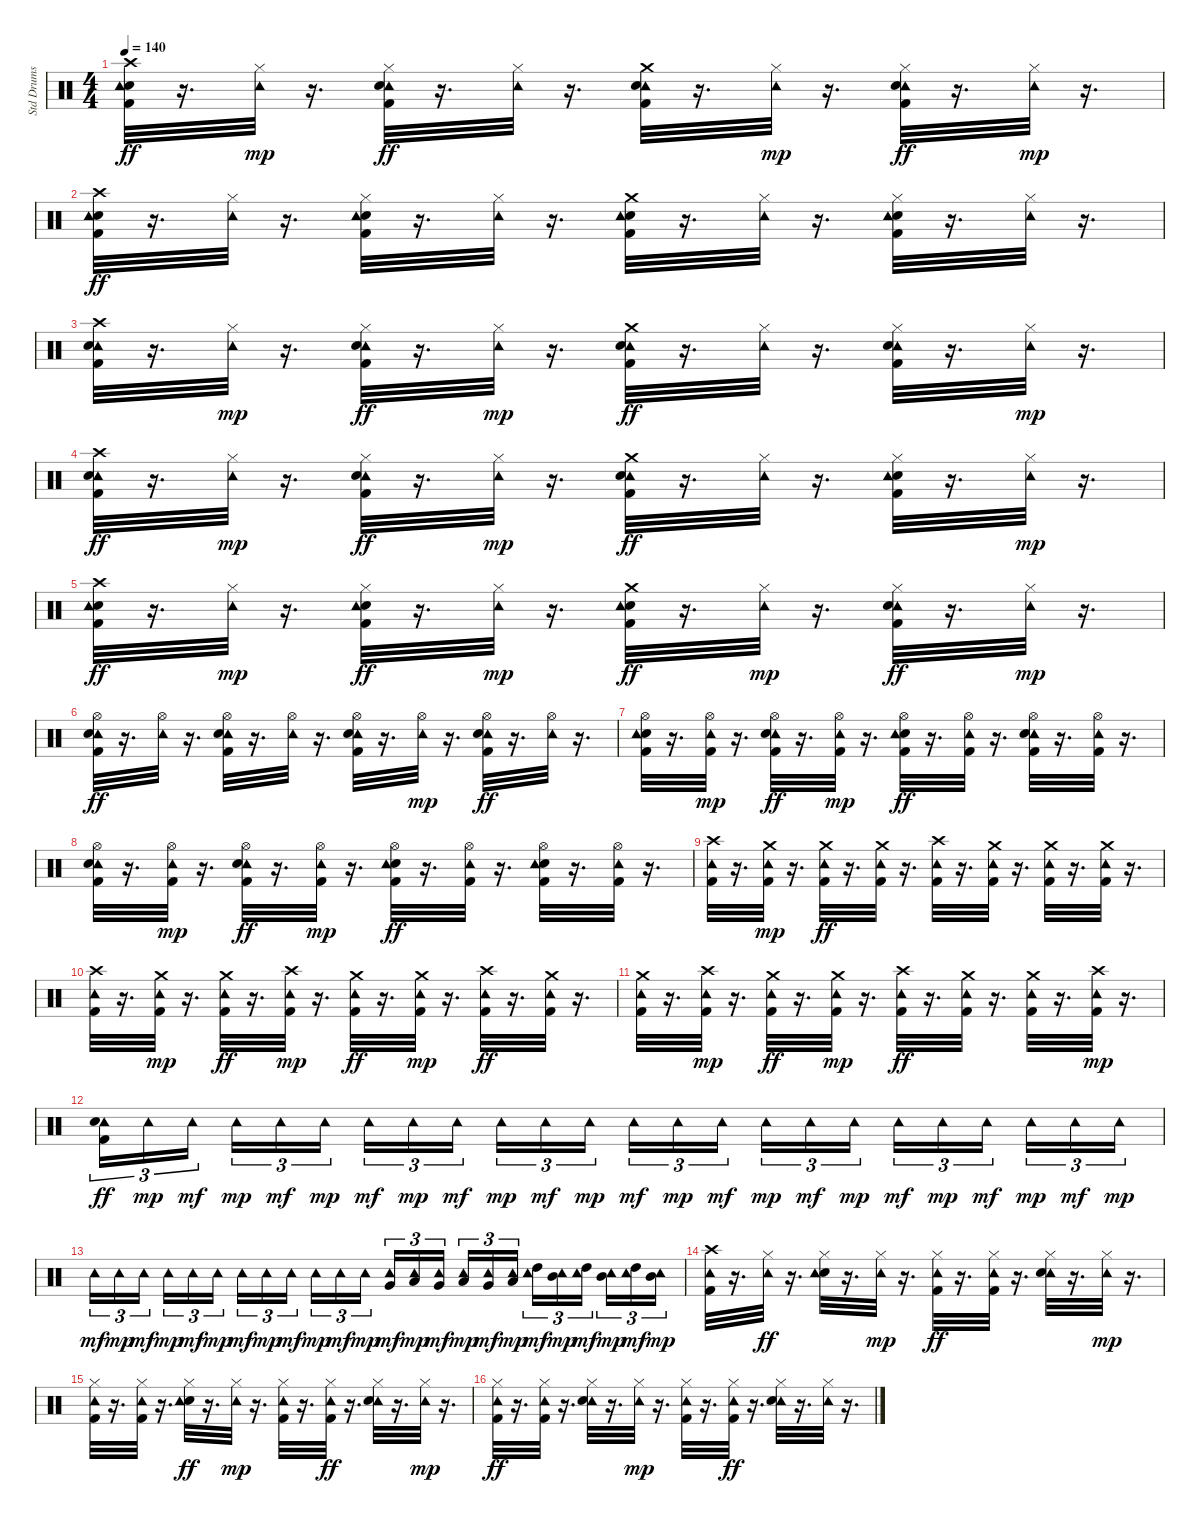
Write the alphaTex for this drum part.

\track ("Std Drums" "Std Drums") {instrument percussion}
\staff {score}
\articulation defaults
\ts (4 4)
\tempo 140
\clef neutral
\ks c
("Snare (hit) 2" "Kick (hit) 2" "Crash high (hit)" "Tambourine (hit)").32{dy ff} r.16{d} ("Hi-Hat (closed)" "Tambourine (hit)").32{dy mp} r.16{d} ("Hi-Hat (closed)" "Tambourine (hit)" "Snare (hit) 2" "Kick (hit) 2").32{dy ff} r.16{d} ("Tambourine (hit)" "Hi-Hat (closed)").32 r.16{d} ("Tambourine (hit)" "Kick (hit) 2" "Crash medium (hit)" "Snare (hit) 2").32 r.16{d} ("Hi-Hat (closed)" "Tambourine (hit)").32{dy mp} r.16{d} ("Tambourine (hit)" "Kick (hit) 2" "Snare (hit) 2" "Hi-Hat (closed)").32{dy ff} r.16{d} ("Hi-Hat (closed)" "Tambourine (hit)").32{dy mp} r.16{d} |
("Snare (hit) 2" "Kick (hit) 2" "Tambourine (hit)" "Crash high (hit)").32{dy ff} r.16{d} ("Tambourine (hit)" "Hi-Hat (closed)").32 r.16{d} ("Hi-Hat (closed)" "Snare (hit) 2" "Tambourine (hit)" "Kick (hit) 2").32 r.16{d} ("Tambourine (hit)" "Hi-Hat (closed)").32 r.16{d} ("Snare (hit) 2" "Crash medium (hit)" "Kick (hit) 2" "Tambourine (hit)").32 r.16{d} ("Tambourine (hit)" "Hi-Hat (closed)").32 r.16{d} ("Snare (hit) 2" "Tambourine (hit)" "Kick (hit) 2" "Hi-Hat (closed)").32 r.16{d} ("Tambourine (hit)" "Hi-Hat (closed)").32 r.16{d} |
("Crash high (hit)" "Tambourine (hit)" "Snare (hit) 2" "Kick (hit) 2").32 r.16{d} ("Hi-Hat (closed)" "Tambourine (hit)").32{dy mp} r.16{d} ("Hi-Hat (closed)" "Kick (hit) 2" "Tambourine (hit)" "Snare (hit) 2").32{dy ff} r.16{d} ("Hi-Hat (closed)" "Tambourine (hit)").32{dy mp} r.16{d} ("Tambourine (hit)" "Crash medium (hit)" "Kick (hit) 2" "Snare (hit) 2").32{dy ff} r.16{d} ("Tambourine (hit)" "Hi-Hat (closed)").32 r.16{d} ("Tambourine (hit)" "Kick (hit) 2" "Hi-Hat (closed)" "Snare (hit) 2").32 r.16{d} ("Hi-Hat (closed)" "Tambourine (hit)").32{dy mp} r.16{d} |
("Tambourine (hit)" "Snare (hit) 2" "Crash high (hit)" "Kick (hit) 2").32{dy ff} r.16{d} ("Hi-Hat (closed)" "Tambourine (hit)").32{dy mp} r.16{d} ("Hi-Hat (closed)" "Tambourine (hit)" "Kick (hit) 2" "Snare (hit) 2").32{dy ff} r.16{d} ("Hi-Hat (closed)" "Tambourine (hit)").32{dy mp} r.16{d} ("Crash medium (hit)" "Tambourine (hit)" "Snare (hit) 2" "Kick (hit) 2").32{dy ff} r.16{d} ("Tambourine (hit)" "Hi-Hat (closed)").32 r.16{d} ("Hi-Hat (closed)" "Snare (hit) 2" "Tambourine (hit)" "Kick (hit) 2").32 r.16{d} ("Hi-Hat (closed)" "Tambourine (hit)").32{dy mp} r.16{d} |
("Snare (hit) 2" "Crash high (hit)" "Tambourine (hit)" "Kick (hit) 2").32{dy ff} r.16{d} ("Hi-Hat (closed)" "Tambourine (hit)").32{dy mp} r.16{d} ("Snare (hit) 2" "Hi-Hat (closed)" "Kick (hit) 2" "Tambourine (hit)").32{dy ff} r.16{d} ("Hi-Hat (closed)" "Tambourine (hit)").32{dy mp} r.16{d} ("Kick (hit) 2" "Snare (hit) 2" "Crash medium (hit)" "Tambourine (hit)").32{dy ff} r.16{d} ("Hi-Hat (closed)" "Tambourine (hit)").32{dy mp} r.16{d} ("Hi-Hat (closed)" "Kick (hit) 2" "Tambourine (hit)" "Snare (hit) 2").32{dy ff} r.16{d} ("Hi-Hat (closed)" "Tambourine (hit)").32{dy mp} r.16{d} |
("Tambourine (hit)" "Snare (hit) 2" "Kick (hit) 2" "Hi-Hat (open)").32{dy ff} r.16{d} ("Tambourine (hit)" "Hi-Hat (open)").32 r.16{d} ("Tambourine (hit)" "Kick (hit) 2" "Snare (hit) 2" "Hi-Hat (open)").32 r.16{d} ("Tambourine (hit)" "Hi-Hat (open)").32 r.16{d} ("Hi-Hat (open)" "Kick (hit) 2" "Tambourine (hit)" "Snare (hit) 2").32 r.16{d} ("Hi-Hat (open)" "Tambourine (hit)").32{dy mp} r.16{d} ("Kick (hit) 2" "Tambourine (hit)" "Snare (hit) 2" "Hi-Hat (open)").32{dy ff} r.16{d} ("Tambourine (hit)" "Hi-Hat (open)").32 r.16{d} |
("Snare (hit) 2" "Hi-Hat (open)" "Tambourine (hit)" "Kick (hit) 2").32 r.16{d} ("Kick (hit) 2" "Hi-Hat (open)" "Tambourine (hit)").32{dy mp} r.16{d} ("Hi-Hat (open)" "Kick (hit) 2" "Tambourine (hit)" "Snare (hit) 2").32{dy ff} r.16{d} ("Kick (hit) 2" "Hi-Hat (open)" "Tambourine (hit)").32{dy mp} r.16{d} ("Hi-Hat (open)" "Snare (hit) 2" "Kick (hit) 2" "Tambourine (hit)").32{dy ff} r.16{d} ("Kick (hit) 2" "Tambourine (hit)" "Hi-Hat (open)").32 r.16{d} ("Kick (hit) 2" "Tambourine (hit)" "Hi-Hat (open)" "Snare (hit) 2").32 r.16{d} ("Kick (hit) 2" "Tambourine (hit)" "Hi-Hat (open)").32 r.16{d} |
("Hi-Hat (open)" "Tambourine (hit)" "Kick (hit) 2" "Snare (hit) 2").32 r.16{d} ("Kick (hit) 2" "Hi-Hat (open)" "Tambourine (hit)").32{dy mp} r.16{d} ("Hi-Hat (open)" "Kick (hit) 2" "Tambourine (hit)" "Snare (hit) 2").32{dy ff} r.16{d} ("Kick (hit) 2" "Hi-Hat (open)" "Tambourine (hit)").32{dy mp} r.16{d} ("Snare (hit) 2" "Kick (hit) 2" "Hi-Hat (open)" "Tambourine (hit)").32{dy ff} r.16{d} ("Kick (hit) 2" "Tambourine (hit)" "Hi-Hat (open)").32 r.16{d} ("Hi-Hat (open)" "Snare (hit) 2" "Tambourine (hit)" "Kick (hit) 2").32 r.16{d} ("Tambourine (hit)" "Kick (hit) 2" "Hi-Hat (open)").32 r.16{d} |
("Kick (hit) 2" "Crash high (hit)" "Tambourine (hit)").32 r.16{d} ("Kick (hit) 2" "Crash medium (hit)" "Tambourine (hit)").32{dy mp} r.16{d} ("Tambourine (hit)" "Crash medium (hit)" "Kick (hit) 2").32{dy ff} r.16{d} ("Crash medium (hit)" "Tambourine (hit)" "Kick (hit) 2").32 r.16{d} ("Tambourine (hit)" "Crash high (hit)" "Kick (hit) 2").32 r.16{d} ("Tambourine (hit)" "Crash medium (hit)" "Kick (hit) 2").32 r.16{d} ("Tambourine (hit)" "Crash medium (hit)" "Kick (hit) 2").32 r.16{d} ("Tambourine (hit)" "Kick (hit) 2" "Crash medium (hit)").32 r.16{d} |
("Tambourine (hit)" "Kick (hit) 2" "Crash high (hit)").32 r.16{d} ("Kick (hit) 2" "Crash medium (hit)" "Tambourine (hit)").32{dy mp} r.16{d} ("Crash medium (hit)" "Tambourine (hit)" "Kick (hit) 2").32{dy ff} r.16{d} ("Crash high (hit)" "Kick (hit) 2" "Tambourine (hit)").32{dy mp} r.16{d} ("Tambourine (hit)" "Crash medium (hit)" "Kick (hit) 2").32{dy ff} r.16{d} ("Kick (hit) 2" "Crash medium (hit)" "Tambourine (hit)").32{dy mp} r.16{d} ("Crash high (hit)" "Tambourine (hit)" "Kick (hit) 2").32{dy ff} r.16{d} ("Crash medium (hit)" "Tambourine (hit)" "Kick (hit) 2").32 r.16{d} |
("Crash medium (hit)" "Tambourine (hit)" "Kick (hit) 2").32 r.16{d} ("Crash high (hit)" "Kick (hit) 2" "Tambourine (hit)").32{dy mp} r.16{d} ("Tambourine (hit)" "Kick (hit) 2" "Crash medium (hit)").32{dy ff} r.16{d} ("Kick (hit) 2" "Crash medium (hit)" "Tambourine (hit)").32{dy mp} r.16{d} ("Tambourine (hit)" "Crash high (hit)" "Kick (hit) 2").32{dy ff} r.16{d} ("Crash medium (hit)" "Tambourine (hit)" "Kick (hit) 2").32 r.16{d} ("Tambourine (hit)" "Crash medium (hit)" "Kick (hit) 2").32 r.16{d} ("Kick (hit) 2" "Crash high (hit)" "Tambourine (hit)").32{dy mp} r.16{d} |
("Tambourine (hit)" "Kick (hit) 2" "Snare (hit) 2").16{tu (3 2) dy ff} "Tambourine (hit)".16{tu (3 2) dy mp} "Tambourine (hit)".16{tu (3 2) dy mf} "Tambourine (hit)".16{tu (3 2) dy mp} "Tambourine (hit)".16{tu (3 2) dy mf} "Tambourine (hit)".16{tu (3 2) dy mp} "Tambourine (hit)".16{tu (3 2) dy mf} "Tambourine (hit)".16{tu (3 2) dy mp} "Tambourine (hit)".16{tu (3 2) dy mf} "Tambourine (hit)".16{tu (3 2) dy mp} "Tambourine (hit)".16{tu (3 2) dy mf} "Tambourine (hit)".16{tu (3 2) dy mp} "Tambourine (hit)".16{tu (3 2) dy mf} "Tambourine (hit)".16{tu (3 2) dy mp} "Tambourine (hit)".16{tu (3 2) dy mf} "Tambourine (hit)".16{tu (3 2) dy mp} "Tambourine (hit)".16{tu (3 2) dy mf} "Tambourine (hit)".16{tu (3 2) dy mp} "Tambourine (hit)".16{tu (3 2) dy mf} "Tambourine (hit)".16{tu (3 2) dy mp} "Tambourine (hit)".16{tu (3 2) dy mf} "Tambourine (hit)".16{tu (3 2) dy mp} "Tambourine (hit)".16{tu (3 2) dy mf} "Tambourine (hit)".16{tu (3 2) dy mp} |
"Tambourine (hit)".16{tu (3 2) dy mf} "Tambourine (hit)".16{tu (3 2) dy mp} "Tambourine (hit)".16{tu (3 2) dy mf} "Tambourine (hit)".16{tu (3 2) dy mp} "Tambourine (hit)".16{tu (3 2) dy mf} "Tambourine (hit)".16{tu (3 2) dy mp} "Tambourine (hit)".16{tu (3 2) dy mf} "Tambourine (hit)".16{tu (3 2) dy mp} "Tambourine (hit)".16{tu (3 2) dy mf} "Tambourine (hit)".16{tu (3 2) dy mp} "Tambourine (hit)".16{tu (3 2) dy mf} "Tambourine (hit)".16{tu (3 2) dy mp} ("Very Low Tom (hit)" "Tambourine (hit)").16{tu (3 2) dy mf} ("Low Floor Tom (hit)" "Tambourine (hit)").16{tu (3 2) dy mp} ("Tambourine (hit)" "Very Low Tom (hit)").16{tu (3 2) dy mf} ("Tambourine (hit)" "Low Floor Tom (hit)").16{tu (3 2) dy mp} ("Tambourine (hit)" "Very Low Tom (hit)").16{tu (3 2) dy mf} ("Tambourine (hit)" "Low Floor Tom (hit)").16{tu (3 2) dy mp} ("High Tom (hit)" "Tambourine (hit)").16{tu (3 2) dy mf} ("Tambourine (hit)" "Mid Tom (hit)").16{tu (3 2) dy mp} ("Tambourine (hit)" "High Tom (hit)").16{tu (3 2) dy mf} ("Mid Tom (hit)" "Tambourine (hit)").16{tu (3 2) dy mp} ("Tambourine (hit)" "High Tom (hit)").16{tu (3 2) dy mf} ("Mid Tom (hit)" "Tambourine (hit)").16{tu (3 2) dy mp} |
("Crash high (hit)" "Kick (hit) 2" "Tambourine (hit)").32 r.16{d} ("Tambourine (hit)" "Hi-Hat (closed)").32{dy ff} r.16{d} ("Snare (hit) 2" "Hi-Hat (closed)" "Tambourine (hit)").32 r.16{d} ("Hi-Hat (closed)" "Tambourine (hit)").32{dy mp} r.16{d} ("Tambourine (hit)" "Kick (hit) 2" "Hi-Hat (closed)").32{dy ff} r.16{d} ("Hi-Hat (closed)" "Tambourine (hit)" "Kick (hit) 2").32 r.16{d} ("Hi-Hat (closed)" "Tambourine (hit)" "Snare (hit) 2").32 r.16{d} ("Hi-Hat (closed)" "Tambourine (hit)").32{dy mp} r.16{d} |
("Hi-Hat (closed)" "Kick (hit) 2" "Tambourine (hit)").32 r.16{d} ("Kick (hit) 2" "Hi-Hat (closed)" "Tambourine (hit)").32 r.16{d} ("Hi-Hat (closed)" "Snare (hit) 2" "Tambourine (hit)").32{dy ff} r.16{d} ("Hi-Hat (closed)" "Tambourine (hit)").32{dy mp} r.16{d} ("Kick (hit) 2" "Hi-Hat (closed)" "Tambourine (hit)").32 r.16{d} ("Tambourine (hit)" "Kick (hit) 2" "Hi-Hat (closed)").32{dy ff} r.16{d} ("Hi-Hat (closed)" "Tambourine (hit)" "Snare (hit) 2").32 r.16{d} ("Hi-Hat (closed)" "Tambourine (hit)").32{dy mp} r.16{d} |
("Hi-Hat (closed)" "Tambourine (hit)" "Kick (hit) 2").32{dy ff} r.16{d} ("Tambourine (hit)" "Hi-Hat (closed)" "Kick (hit) 2").32 r.16{d} ("Tambourine (hit)" "Hi-Hat (closed)" "Snare (hit) 2").32 r.16{d} ("Hi-Hat (closed)" "Tambourine (hit)").32{dy mp} r.16{d} ("Hi-Hat (closed)" "Kick (hit) 2" "Tambourine (hit)").32 r.16{d} ("Kick (hit) 2" "Tambourine (hit)" "Hi-Hat (closed)").32{dy ff} r.16{d} ("Hi-Hat (closed)" "Tambourine (hit)" "Snare (hit) 2").32 r.16{d} ("Tambourine (hit)" "Hi-Hat (closed)").32 r.16{d}
